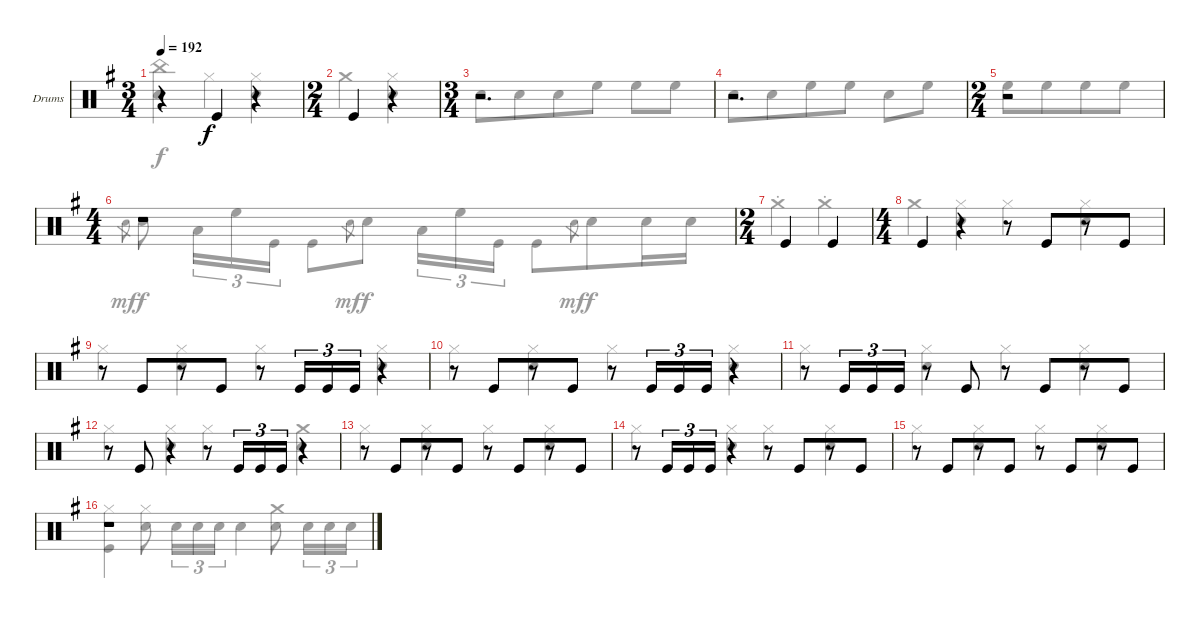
\bracketExtendMode groupsimilarinstruments
\firstSystemTrackNameOrientation horizontal
\otherSystemsTrackNameOrientation horizontal
\track ("Drumkit" "Drums") {instrument percussion}
\staff {score}
\articulation defaults
\voice
\ts (3 4)
\tempo 192
\clef neutral
\scale
1.04288
\ks g
r.4{dy f} "Kick (hit)".4 r.4 |
\ts (2 4)
\beaming (8 4 4)
\scale
0.957125 "Kick (hit)".4 r.4 |
\ts (3 4)
\beaming (8 4 4)
\scale
1.07314 r.2{d} |
\scale
0.92686 r.2{d} |
\ts (2 4)
\beaming (8 4 4)
\scale
1.07314 r.2 |
\ts (4 4)
\beaming (8 4 4)
\scale
0.92686 r.1 |
\ts (2 4)
\beaming (8 4 4)
\scale
1.07314 "Kick (hit)".4 "Kick (hit)".4 |
\ts (4 4)
\beaming (8 4 4)
\scale
0.92686 "Kick (hit)".4 r.4 r.8 "Kick (hit)".8 r.8 "Kick (hit)".8 |
\scale
1.04288 r.8 "Kick (hit)".8 r.8 "Kick (hit)".8 r.8 "Kick (hit)".16{tu (3 2)} "Kick (hit)".16{tu (3 2)} "Kick (hit)".16{tu (3 2)} r.4 |
\scale
0.957125 r.8 "Kick (hit)".8 r.8 "Kick (hit)".8 r.8 "Kick (hit)".16{tu (3 2)} "Kick (hit)".16{tu (3 2)} "Kick (hit)".16{tu (3 2)} r.4 |
\scale
1.04288 r.8 "Kick (hit)".16{tu (3 2)} "Kick (hit)".16{tu (3 2)} "Kick (hit)".16{tu (3 2)} r.8 "Kick (hit)".8 r.8 "Kick (hit)".8 r.8 "Kick (hit)".8 |
\scale
0.957125 r.8 "Kick (hit)".8 r.4 r.8 "Kick (hit)".16{tu (3 2)} "Kick (hit)".16{tu (3 2)} "Kick (hit)".16{tu (3 2)} r.4 |
\scale
1.04288 r.8 "Kick (hit)".8 r.8 "Kick (hit)".8 r.8 "Kick (hit)".8 r.8 "Kick (hit)".8 |
\scale
0.957125 r.8 "Kick (hit)".16{tu (3 2)} "Kick (hit)".16{tu (3 2)} "Kick (hit)".16{tu (3 2)} r.4 r.8 "Kick (hit)".8 r.8 "Kick (hit)".8 |
\scale
1.04288 r.8 "Kick (hit)".8 r.8 "Kick (hit)".8 r.8 "Kick (hit)".8 r.8 "Kick (hit)".8 |
\scale
0.957125 r.1
\voice
\clef neutral
\ottava regular
\simile none
\scale
1.04288
\ks g
("China (hit)" "Snare (hit) 2").4{dy f} "Hi-Hat (closed)".4 ("Hi-Hat (closed)" "Snare (hit) 2").4 |
\scale
0.957125 "Crash medium (hit)".4 ("Hi-Hat (closed)" "Snare (hit) 2").4 |
\scale
1.07314 "Snare (hit) 2".8 "Snare (hit) 2".8 "Snare (hit) 2".8 "High Floor Tom (hit)".8 "High Floor Tom (hit)".8 "High Floor Tom (hit)".8 |
\scale
0.92686 "Snare (hit) 2".8 "Snare (hit) 2".8 "High Floor Tom (hit)".8 "High Floor Tom (hit)".8 "Snare (hit) 2".8 "High Floor Tom (hit)".8 |
\scale
1.07314 "High Floor Tom (hit)".8 "High Floor Tom (hit)".8 "High Floor Tom (hit)".8 "High Floor Tom (hit)".8 |
\scale
0.92686 "Snare (hit) 2".8{gr dy mf} "Snare (hit) 2".8{dy f} "Low Tom (hit)".16{tu (3 2)} "High Floor Tom (hit)".16{tu (3 2)} "Kick (hit)".16{tu (3 2)} "Kick (hit)".8 "Snare (hit) 2".8{gr dy mf} "Snare (hit) 2".8{dy f} "Low Tom (hit)".16{tu (3 2)} "High Floor Tom (hit)".16{tu (3 2)} "Kick (hit)".16{tu (3 2)} "Kick (hit)".8 "Snare (hit) 2".8{gr dy mf} "Snare (hit) 2".8{dy f} "Snare (hit) 2".16 "Snare (hit) 2".16 |
\scale
1.07314 "Crash medium (hit)"{st}.4 "Crash medium (hit)"{st}.4 |
\scale
0.92686 "Crash medium (hit)".4 ("Hi-Hat (closed)" "Snare (hit) 2").4 "Hi-Hat (closed)".4 ("Hi-Hat (closed)" "Snare (hit) 2").4 |
\scale
1.04288 "Hi-Hat (closed)".4 ("Hi-Hat (closed)" "Snare (hit) 2").4 "Hi-Hat (closed)".4 ("Hi-Hat (closed)" "Snare (hit) 2").4 |
\scale
0.957125 "Hi-Hat (closed)".4 ("Hi-Hat (closed)" "Snare (hit) 2").4 "Hi-Hat (closed)".4 ("Hi-Hat (closed)" "Snare (hit) 2").4 |
\scale
1.04288 "Hi-Hat (closed)".4 ("Hi-Hat (closed)" "Snare (hit) 2").4 "Hi-Hat (closed)".4 ("Hi-Hat (closed)" "Snare (hit) 2").4 |
\scale
0.957125 "Hi-Hat (closed)".4 ("Hi-Hat (closed)" "Snare (hit) 2").4 "Hi-Hat (closed)".4 ("Crash medium (hit)" "Snare (hit) 2").4 |
\scale
1.04288 "Hi-Hat (closed)".4 ("Hi-Hat (closed)" "Snare (hit) 2").4 "Hi-Hat (closed)".4 ("Hi-Hat (closed)" "Snare (hit) 2").4 |
\scale
0.957125 "Hi-Hat (closed)".4 ("Hi-Hat (closed)" "Snare (hit) 2").4 "Hi-Hat (closed)".4 ("Hi-Hat (closed)" "Snare (hit) 2").4 |
\scale
1.04288 "Hi-Hat (closed)".4 ("Hi-Hat (closed)" "Snare (hit) 2").4 "Hi-Hat (closed)".4 ("Hi-Hat (closed)" "Snare (hit) 2").4 |
\scale
0.957125 ("Hi-Hat (closed)" "Kick (hit)").4 ("Hi-Hat (closed)" "Snare (hit) 2").8 "Snare (hit) 2".16{tu (3 2)} "Snare (hit) 2".16{tu (3 2)} "Snare (hit) 2".16{tu (3 2)} "Snare (hit) 2".4 ("Crash medium (hit)" "Snare (hit) 2").8 "Snare (hit) 2".16{tu (3 2)} "Snare (hit) 2".16{tu (3 2)} "Snare (hit) 2".16{tu (3 2)}
